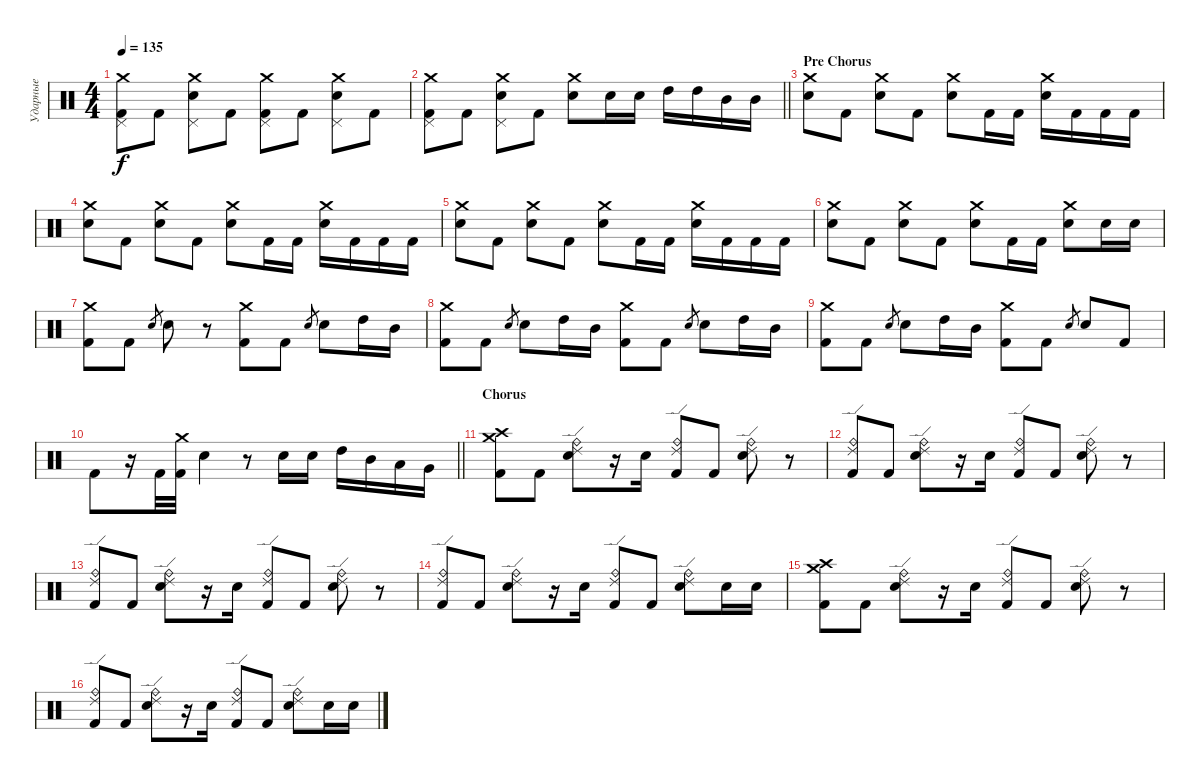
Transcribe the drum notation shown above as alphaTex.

\track ("Ударные" "Ударные") {instrument percussion}
\staff {score}
\articulation defaults
\ts (4 4)
\tempo 135
\clef neutral
\ks c
("Crash medium (hit)" "Pedal Hi-Hat (hit)" "Kick (hit) 2").8{dy f} "Kick (hit) 2".8 ("Crash medium (hit)" "Pedal Hi-Hat (hit)" "Electric Snare (hit)").8 "Kick (hit) 2".8 ("Crash medium (hit)" "Pedal Hi-Hat (hit)" "Kick (hit) 2").8 "Kick (hit) 2".8 ("Crash medium (hit)" "Pedal Hi-Hat (hit)" "Electric Snare (hit)").8 "Kick (hit) 2".8 |
\barLineRight lightlight
("Crash medium (hit)" "Pedal Hi-Hat (hit)" "Kick (hit) 2").8 "Kick (hit) 2".8 ("Crash medium (hit)" "Pedal Hi-Hat (hit)" "Electric Snare (hit)").8 "Kick (hit) 2".8 ("Crash medium (hit)" "Electric Snare (hit)").8 "Electric Snare (hit)".16 "Electric Snare (hit)".16 "High Tom (hit)".16 "High Tom (hit)".16 "Mid Tom (hit)".16 "Mid Tom (hit)".16 |
\section ("" "Pre Chorus")
("Crash medium (hit)" "Electric Snare (hit)").8 "Kick (hit) 2".8 ("Crash medium (hit)" "Electric Snare (hit)").8 "Kick (hit) 2".8 ("Crash medium (hit)" "Electric Snare (hit)").8 "Kick (hit) 2".16 "Kick (hit) 2".16 ("Crash medium (hit)" "Electric Snare (hit)").16 "Kick (hit) 2".16 "Kick (hit) 2".16 "Kick (hit) 2".16 |
("Crash medium (hit)" "Electric Snare (hit)").8 "Kick (hit) 2".8 ("Crash medium (hit)" "Electric Snare (hit)").8 "Kick (hit) 2".8 ("Crash medium (hit)" "Electric Snare (hit)").8 "Kick (hit) 2".16 "Kick (hit) 2".16 ("Crash medium (hit)" "Electric Snare (hit)").16 "Kick (hit) 2".16 "Kick (hit) 2".16 "Kick (hit) 2".16 |
("Crash medium (hit)" "Electric Snare (hit)").8 "Kick (hit) 2".8 ("Crash medium (hit)" "Electric Snare (hit)").8 "Kick (hit) 2".8 ("Crash medium (hit)" "Electric Snare (hit)").8 "Kick (hit) 2".16 "Kick (hit) 2".16 ("Crash medium (hit)" "Electric Snare (hit)").16 "Kick (hit) 2".16 "Kick (hit) 2".16 "Kick (hit) 2".16 |
("Crash medium (hit)" "Electric Snare (hit)").8 "Kick (hit) 2".8 ("Crash medium (hit)" "Electric Snare (hit)").8 "Kick (hit) 2".8 ("Crash medium (hit)" "Electric Snare (hit)").8 "Kick (hit) 2".16 "Kick (hit) 2".16 ("Crash medium (hit)" "Electric Snare (hit)").8 "Electric Snare (hit)".16 "Electric Snare (hit)".16 |
("Crash medium (hit)" "Kick (hit) 2").8 "Kick (hit) 2".8 "Electric Snare (hit)".8{gr} "Electric Snare (hit)".8 r.8 ("Crash medium (hit)" "Kick (hit) 2").8 "Kick (hit) 2".8 "Electric Snare (hit)".8{gr} "Electric Snare (hit)".8 "High Tom (hit)".16 "Mid Tom (hit)".16 |
("Crash medium (hit)" "Kick (hit) 2").8 "Kick (hit) 2".8 "Electric Snare (hit)".8{gr} "Electric Snare (hit)".8 "High Tom (hit)".16 "Mid Tom (hit)".16 ("Crash medium (hit)" "Kick (hit) 2").8 "Kick (hit) 2".8 "Electric Snare (hit)".8{gr} "Electric Snare (hit)".8 "High Tom (hit)".16 "Mid Tom (hit)".16 |
("Crash medium (hit)" "Kick (hit) 2").8 "Kick (hit) 2".8 "Electric Snare (hit)".8{gr} "Electric Snare (hit)".8 "High Tom (hit)".16 "Mid Tom (hit)".16 ("Crash medium (hit)" "Kick (hit) 2").8 "Kick (hit) 2".8 "Electric Snare (hit)".8{gr} "Electric Snare (hit)".8 "Kick (hit) 2".8 |
\barLineRight lightlight "Kick (hit) 2".8
r.16 "Kick (hit) 2".32 ("Crash medium (hit)" "Kick (hit) 2").32 "Electric Snare (hit)".4 r.8 "Electric Snare (hit)".16 "Electric Snare (hit)".16 "High Tom (hit)".16 "Mid Tom (hit)".16 "Low Tom (hit)".16 "Very Low Tom (hit)".16 |
\section ("" "Chorus")
("Crash medium (hit)" "Crash high (hit)" "Kick (hit) 2").8 "Kick (hit) 2".8 ("Ride (bell)" "Ride (edge) 2" "Electric Snare (hit)").8 r.16 "Electric Snare (hit)".16 ("Ride (bell)" "Ride (edge) 2" "Kick (hit) 2").8 "Kick (hit) 2".8 ("Ride (bell)" "Ride (edge) 2" "Electric Snare (hit)").8 r.8 |
("Ride (bell)" "Ride (edge) 2" "Kick (hit) 2").8 "Kick (hit) 2".8 ("Ride (bell)" "Ride (edge) 2" "Electric Snare (hit)").8 r.16 "Electric Snare (hit)".16 ("Ride (bell)" "Ride (edge) 2" "Kick (hit) 2").8 "Kick (hit) 2".8 ("Ride (bell)" "Ride (edge) 2" "Electric Snare (hit)").8 r.8 |
("Ride (bell)" "Ride (edge) 2" "Kick (hit) 2").8 "Kick (hit) 2".8 ("Ride (bell)" "Ride (edge) 2" "Electric Snare (hit)").8 r.16 "Electric Snare (hit)".16 ("Ride (bell)" "Ride (edge) 2" "Kick (hit) 2").8 "Kick (hit) 2".8 ("Ride (bell)" "Ride (edge) 2" "Electric Snare (hit)").8 r.8 |
("Ride (bell)" "Ride (edge) 2" "Kick (hit) 2").8 "Kick (hit) 2".8 ("Ride (bell)" "Ride (edge) 2" "Electric Snare (hit)").8 r.16 "Electric Snare (hit)".16 ("Ride (bell)" "Ride (edge) 2" "Kick (hit) 2").8 "Kick (hit) 2".8 ("Ride (bell)" "Ride (edge) 2" "Electric Snare (hit)").8 "Electric Snare (hit)".16 "Electric Snare (hit)".16 |
("Crash medium (hit)" "Crash high (hit)" "Kick (hit) 2").8 "Kick (hit) 2".8 ("Ride (bell)" "Ride (edge) 2" "Electric Snare (hit)").8 r.16 "Electric Snare (hit)".16 ("Ride (bell)" "Ride (edge) 2" "Kick (hit) 2").8 "Kick (hit) 2".8 ("Ride (bell)" "Ride (edge) 2" "Electric Snare (hit)").8 r.8 |
("Ride (bell)" "Ride (edge) 2" "Kick (hit) 2").8 "Kick (hit) 2".8 ("Ride (bell)" "Ride (edge) 2" "Electric Snare (hit)").8 r.16 "Electric Snare (hit)".16 ("Ride (bell)" "Ride (edge) 2" "Kick (hit) 2").8 "Kick (hit) 2".8 ("Ride (bell)" "Ride (edge) 2" "Electric Snare (hit)").8 "Electric Snare (hit)".16 "Electric Snare (hit)".16
